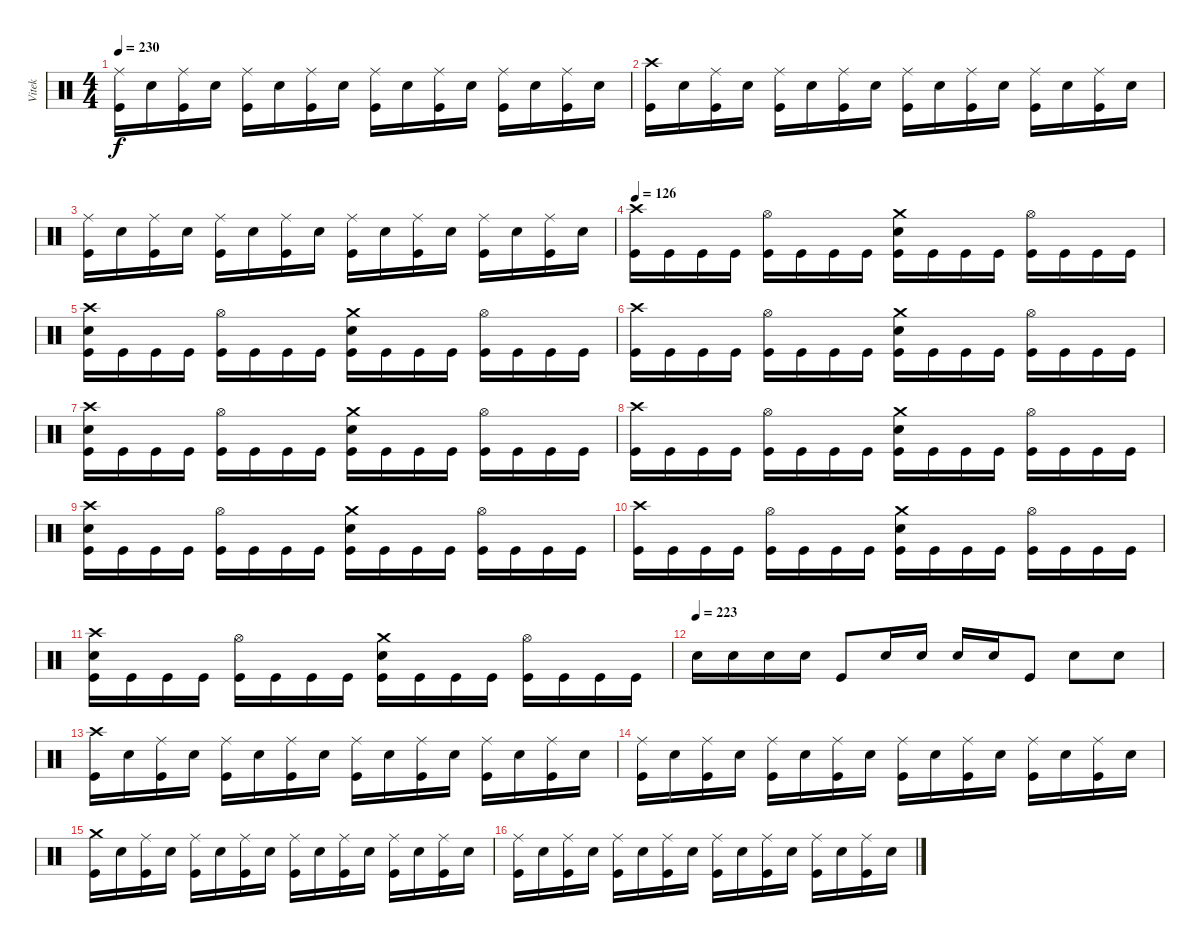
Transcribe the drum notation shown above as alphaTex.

\track ("Vitek" "Vitek") {instrument percussion}
\staff {score}
\articulation defaults
\ts (4 4)
\tempo 230
\clef neutral
\ks c
("Ride (middle)" "Kick (hit)").16{dy f} "Snare (hit) 2".16 ("Ride (middle)" "Kick (hit)").16 "Snare (hit) 2".16 ("Ride (middle)" "Kick (hit)").16 "Snare (hit) 2".16 ("Ride (middle)" "Kick (hit)").16 "Snare (hit) 2".16 ("Ride (middle)" "Kick (hit)").16 "Snare (hit) 2".16 ("Ride (middle)" "Kick (hit)").16 "Snare (hit) 2".16 ("Ride (middle)" "Kick (hit)").16 "Snare (hit) 2".16 ("Ride (middle)" "Kick (hit)").16 "Snare (hit) 2".16 |
("Crash high (hit)" "Kick (hit)").16 "Snare (hit) 2".16 ("Ride (middle)" "Kick (hit)").16 "Snare (hit) 2".16 ("Ride (middle)" "Kick (hit)").16 "Snare (hit) 2".16 ("Ride (middle)" "Kick (hit)").16 "Snare (hit) 2".16 ("Ride (middle)" "Kick (hit)").16 "Snare (hit) 2".16 ("Ride (middle)" "Kick (hit)").16 "Snare (hit) 2".16 ("Ride (middle)" "Kick (hit)").16 "Snare (hit) 2".16 ("Ride (middle)" "Kick (hit)").16 "Snare (hit) 2".16 |
("Ride (middle)" "Kick (hit)").16 "Snare (hit) 2".16 ("Ride (middle)" "Kick (hit)").16 "Snare (hit) 2".16 ("Ride (middle)" "Kick (hit)").16 "Snare (hit) 2".16 ("Ride (middle)" "Kick (hit)").16 "Snare (hit) 2".16 ("Ride (middle)" "Kick (hit)").16 "Snare (hit) 2".16 ("Ride (middle)" "Kick (hit)").16 "Snare (hit) 2".16 ("Ride (middle)" "Kick (hit)").16 "Snare (hit) 2".16 ("Ride (middle)" "Kick (hit)").16 "Snare (hit) 2".16 |
\tempo 126
("Crash high (hit)" "Kick (hit)").16 "Kick (hit)".16 "Kick (hit)".16 "Kick (hit)".16 ("Hi-Hat (open)" "Kick (hit)").16 "Kick (hit)".16 "Kick (hit)".16 "Kick (hit)".16 ("Crash medium (hit)" "Snare (hit) 2" "Kick (hit)").16 "Kick (hit)".16 "Kick (hit)".16 "Kick (hit)".16 ("Hi-Hat (open)" "Kick (hit)").16 "Kick (hit)".16 "Kick (hit)".16 "Kick (hit)".16 |
("Crash high (hit)" "Snare (hit) 2" "Kick (hit)").16 "Kick (hit)".16 "Kick (hit)".16 "Kick (hit)".16 ("Hi-Hat (open)" "Kick (hit)").16 "Kick (hit)".16 "Kick (hit)".16 "Kick (hit)".16 ("Crash medium (hit)" "Snare (hit) 2" "Kick (hit)").16 "Kick (hit)".16 "Kick (hit)".16 "Kick (hit)".16 ("Hi-Hat (open)" "Kick (hit)").16 "Kick (hit)".16 "Kick (hit)".16 "Kick (hit)".16 |
("Crash high (hit)" "Kick (hit)").16 "Kick (hit)".16 "Kick (hit)".16 "Kick (hit)".16 ("Hi-Hat (open)" "Kick (hit)").16 "Kick (hit)".16 "Kick (hit)".16 "Kick (hit)".16 ("Crash medium (hit)" "Snare (hit) 2" "Kick (hit)").16 "Kick (hit)".16 "Kick (hit)".16 "Kick (hit)".16 ("Hi-Hat (open)" "Kick (hit)").16 "Kick (hit)".16 "Kick (hit)".16 "Kick (hit)".16 |
("Crash high (hit)" "Snare (hit) 2" "Kick (hit)").16 "Kick (hit)".16 "Kick (hit)".16 "Kick (hit)".16 ("Hi-Hat (open)" "Kick (hit)").16 "Kick (hit)".16 "Kick (hit)".16 "Kick (hit)".16 ("Crash medium (hit)" "Snare (hit) 2" "Kick (hit)").16 "Kick (hit)".16 "Kick (hit)".16 "Kick (hit)".16 ("Hi-Hat (open)" "Kick (hit)").16 "Kick (hit)".16 "Kick (hit)".16 "Kick (hit)".16 |
("Crash high (hit)" "Kick (hit)").16 "Kick (hit)".16 "Kick (hit)".16 "Kick (hit)".16 ("Hi-Hat (open)" "Kick (hit)").16 "Kick (hit)".16 "Kick (hit)".16 "Kick (hit)".16 ("Crash medium (hit)" "Snare (hit) 2" "Kick (hit)").16 "Kick (hit)".16 "Kick (hit)".16 "Kick (hit)".16 ("Hi-Hat (open)" "Kick (hit)").16 "Kick (hit)".16 "Kick (hit)".16 "Kick (hit)".16 |
("Crash high (hit)" "Snare (hit) 2" "Kick (hit)").16 "Kick (hit)".16 "Kick (hit)".16 "Kick (hit)".16 ("Hi-Hat (open)" "Kick (hit)").16 "Kick (hit)".16 "Kick (hit)".16 "Kick (hit)".16 ("Crash medium (hit)" "Snare (hit) 2" "Kick (hit)").16 "Kick (hit)".16 "Kick (hit)".16 "Kick (hit)".16 ("Hi-Hat (open)" "Kick (hit)").16 "Kick (hit)".16 "Kick (hit)".16 "Kick (hit)".16 |
("Crash high (hit)" "Kick (hit)").16 "Kick (hit)".16 "Kick (hit)".16 "Kick (hit)".16 ("Hi-Hat (open)" "Kick (hit)").16 "Kick (hit)".16 "Kick (hit)".16 "Kick (hit)".16 ("Crash medium (hit)" "Snare (hit) 2" "Kick (hit)").16 "Kick (hit)".16 "Kick (hit)".16 "Kick (hit)".16 ("Hi-Hat (open)" "Kick (hit)").16 "Kick (hit)".16 "Kick (hit)".16 "Kick (hit)".16 |
("Crash high (hit)" "Snare (hit) 2" "Kick (hit)").16 "Kick (hit)".16 "Kick (hit)".16 "Kick (hit)".16 ("Hi-Hat (open)" "Kick (hit)").16 "Kick (hit)".16 "Kick (hit)".16 "Kick (hit)".16 ("Crash medium (hit)" "Snare (hit) 2" "Kick (hit)").16 "Kick (hit)".16 "Kick (hit)".16 "Kick (hit)".16 ("Hi-Hat (open)" "Kick (hit)").16 "Kick (hit)".16 "Kick (hit)".16 "Kick (hit)".16 |
\tempo (223)
"Snare (hit) 2".16 "Snare (hit) 2".16 "Snare (hit) 2".16 "Snare (hit) 2".16 "Kick (hit)".8 "Snare (hit) 2".16 "Snare (hit) 2".16 "Snare (hit) 2".16 "Snare (hit) 2".16 "Kick (hit)".8 "Snare (hit) 2".8 "Snare (hit) 2".8 |
("Crash high (hit)" "Kick (hit)").16 "Snare (hit) 2".16 ("Ride (middle)" "Kick (hit)").16 "Snare (hit) 2".16 ("Ride (middle)" "Kick (hit)").16 "Snare (hit) 2".16 ("Ride (middle)" "Kick (hit)").16 "Snare (hit) 2".16 ("Ride (middle)" "Kick (hit)").16 "Snare (hit) 2".16 ("Ride (middle)" "Kick (hit)").16 "Snare (hit) 2".16 ("Ride (middle)" "Kick (hit)").16 "Snare (hit) 2".16 ("Ride (middle)" "Kick (hit)").16 "Snare (hit) 2".16 |
("Ride (middle)" "Kick (hit)").16 "Snare (hit) 2".16 ("Ride (middle)" "Kick (hit)").16 "Snare (hit) 2".16 ("Ride (middle)" "Kick (hit)").16 "Snare (hit) 2".16 ("Ride (middle)" "Kick (hit)").16 "Snare (hit) 2".16 ("Ride (middle)" "Kick (hit)").16 "Snare (hit) 2".16 ("Ride (middle)" "Kick (hit)").16 "Snare (hit) 2".16 ("Ride (middle)" "Kick (hit)").16 "Snare (hit) 2".16 ("Ride (middle)" "Kick (hit)").16 "Snare (hit) 2".16 |
("Crash medium (hit)" "Kick (hit)").16 "Snare (hit) 2".16 ("Ride (middle)" "Kick (hit)").16 "Snare (hit) 2".16 ("Ride (middle)" "Kick (hit)").16 "Snare (hit) 2".16 ("Ride (middle)" "Kick (hit)").16 "Snare (hit) 2".16 ("Ride (middle)" "Kick (hit)").16 "Snare (hit) 2".16 ("Ride (middle)" "Kick (hit)").16 "Snare (hit) 2".16 ("Ride (middle)" "Kick (hit)").16 "Snare (hit) 2".16 ("Ride (middle)" "Kick (hit)").16 "Snare (hit) 2".16 |
("Ride (middle)" "Kick (hit)").16 "Snare (hit) 2".16 ("Ride (middle)" "Kick (hit)").16 "Snare (hit) 2".16 ("Ride (middle)" "Kick (hit)").16 "Snare (hit) 2".16 ("Ride (middle)" "Kick (hit)").16 "Snare (hit) 2".16 ("Ride (middle)" "Kick (hit)").16 "Snare (hit) 2".16 ("Ride (middle)" "Kick (hit)").16 "Snare (hit) 2".16 ("Ride (middle)" "Kick (hit)").16 "Snare (hit) 2".16 ("Ride (middle)" "Kick (hit)").16 "Snare (hit) 2".16
